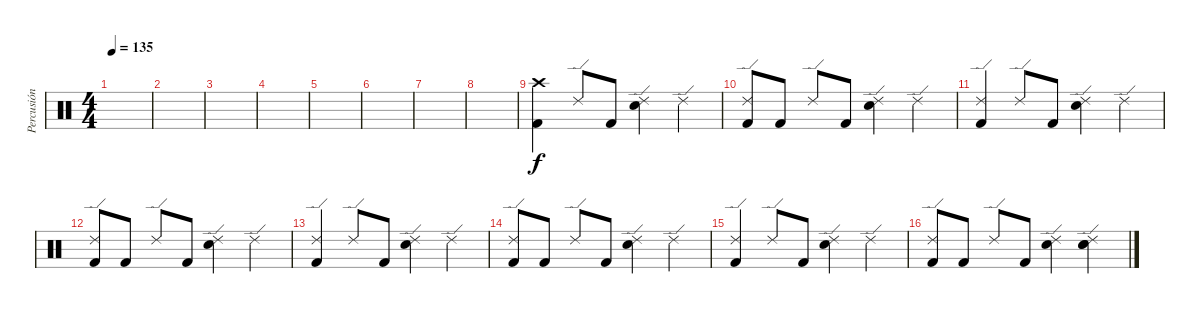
\track ("Percusión" "Percusión") {instrument percussion}
\staff {score}
\articulation defaults
\ts (4 4)
\tempo 135
\clef neutral
\ks c
|
|
|
|
|
|
|
|
("Kick (hit) 2" "Crash high (hit)").4 "Ride (edge) 2".8 "Kick (hit) 2".8 ("Snare (hit) 2" "Ride (edge) 2").4 "Ride (edge) 2".4 |
("Kick (hit) 2" "Ride (edge) 2").8 "Kick (hit) 2".8 "Ride (edge) 2".8 "Kick (hit) 2".8 ("Snare (hit) 2" "Ride (edge) 2").4 "Ride (edge) 2".4 |
("Kick (hit) 2" "Ride (edge) 2").4 "Ride (edge) 2".8 "Kick (hit) 2".8 ("Snare (hit) 2" "Ride (edge) 2").4 "Ride (edge) 2".4 |
("Kick (hit) 2" "Ride (edge) 2").8 "Kick (hit) 2".8 "Ride (edge) 2".8 "Kick (hit) 2".8 ("Snare (hit) 2" "Ride (edge) 2").4 "Ride (edge) 2".4 |
("Kick (hit) 2" "Ride (edge) 2").4 "Ride (edge) 2".8 "Kick (hit) 2".8 ("Snare (hit) 2" "Ride (edge) 2").4 "Ride (edge) 2".4 |
("Kick (hit) 2" "Ride (edge) 2").8 "Kick (hit) 2".8 "Ride (edge) 2".8 "Kick (hit) 2".8 ("Snare (hit) 2" "Ride (edge) 2").4 "Ride (edge) 2".4 |
("Kick (hit) 2" "Ride (edge) 2").4 "Ride (edge) 2".8 "Kick (hit) 2".8 ("Snare (hit) 2" "Ride (edge) 2").4 "Ride (edge) 2".4 |
("Kick (hit) 2" "Ride (edge) 2").8 "Kick (hit) 2".8 "Ride (edge) 2".8 "Kick (hit) 2".8 ("Snare (hit) 2" "Ride (edge) 2").4 ("Snare (hit) 2" "Snare (hit) 2" "Ride (edge) 2").4
